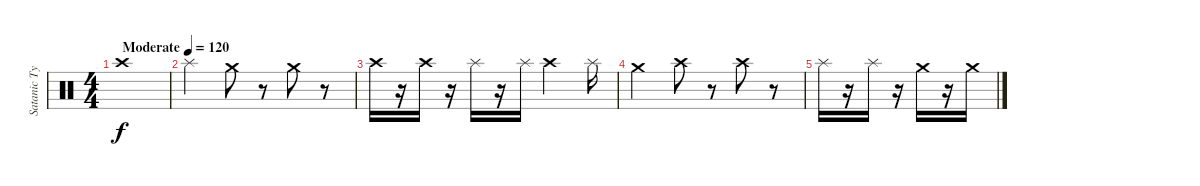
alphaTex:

\track ("Satanic Tyrant Werwolf" "Satanic Ty") {instrument percussion}
\staff {score}
\articulation defaults
\ts (4 4)
\tempo (120 "Moderate")
\clef neutral
\ks c "Crash high (hit)".1{dy f}
|
"Splash (hit)".2 "Crash medium (hit)".8 r.8 "Crash medium (hit)".8 r.8 |
"Crash high (hit)".16 r.16 "Crash high (hit)".16 r.16 "Splash (hit)".16 r.16 "Splash (hit)".16 "Crash high (hit)".2 "Splash (hit)".16 |
"Crash medium (hit)".2 "Crash high (hit)".8 r.8 "Crash high (hit)".8 r.8 |
"Splash (hit)".16 r.16 "Splash (hit)".16 r.16 "Crash medium (hit)".16 r.16 "Crash medium (hit)".16
